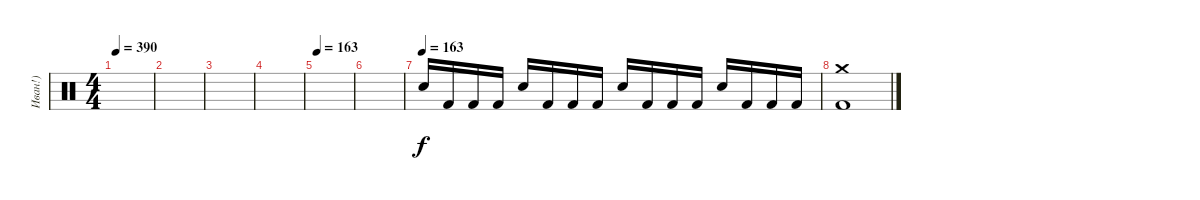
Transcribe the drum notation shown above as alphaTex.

\track ("Иван!)" "Иван!)") {instrument percussion}
\staff {score}
\articulation defaults
\ts (4 4)
\tempo 390
\clef neutral
\ks c
|
|
|
|
\tempo 163
|
|
\tempo (163)
"Electric Snare (hit)".16 "Kick (hit) 2".16 "Kick (hit) 2".16 "Kick (hit) 2".16 "Electric Snare (hit)".16 "Kick (hit) 2".16 "Kick (hit) 2".16 "Kick (hit) 2".16 "Electric Snare (hit)".16 "Kick (hit) 2".16 "Kick (hit) 2".16 "Kick (hit) 2".16 "Electric Snare (hit)".16 "Kick (hit) 2".16 "Kick (hit) 2".16 "Kick (hit) 2".16 |
("Kick (hit) 2" "Crash medium (hit)").1
